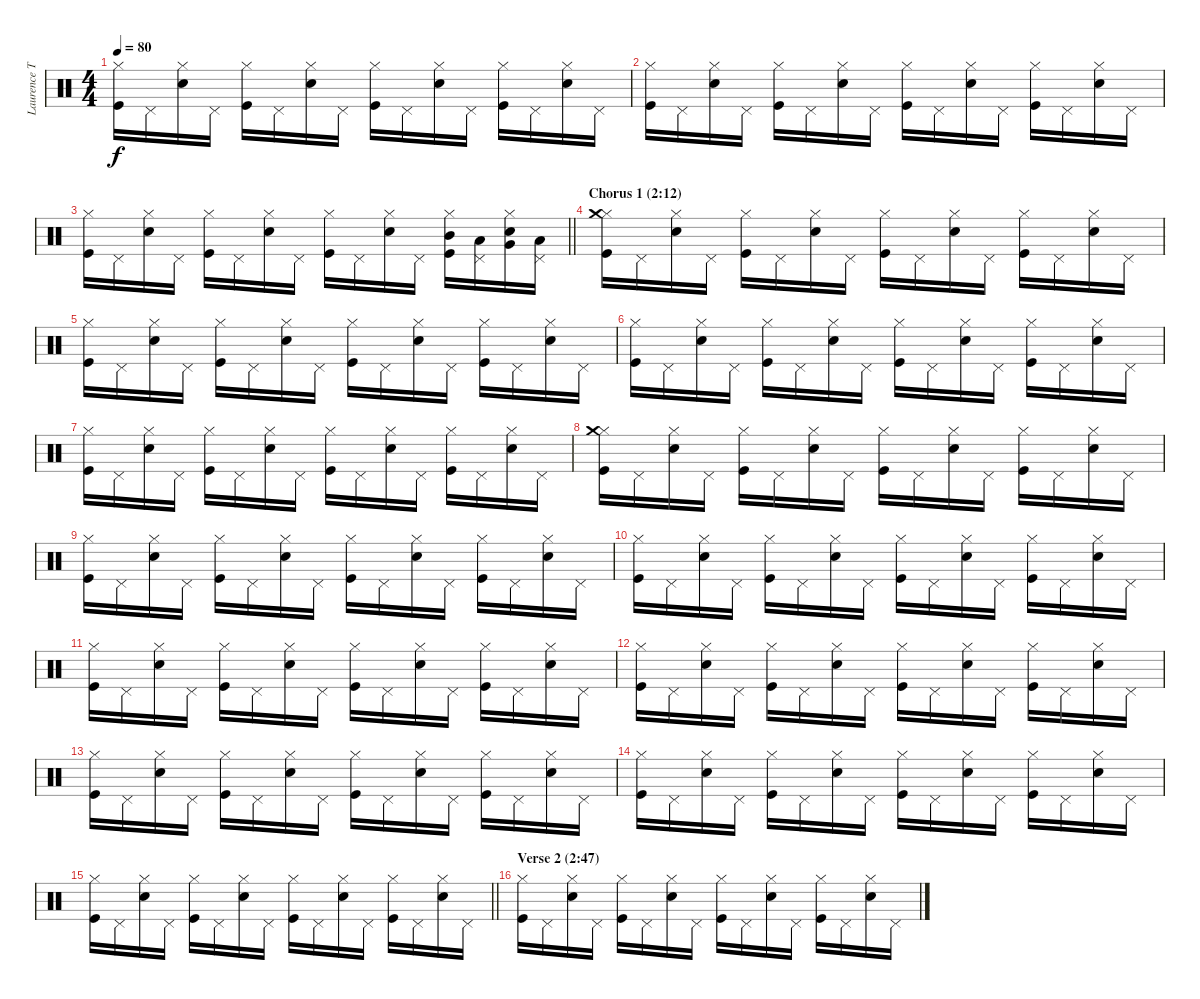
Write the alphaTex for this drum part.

\track ("Laurence Tolhurst (drums)" "Laurence T") {instrument percussion}
\staff {score}
\articulation defaults
\ts (4 4)
\tempo 80
\clef neutral
\ks c
("Kick (hit)" "Hi-Hat (closed)").16{dy f} "Pedal Hi-Hat (hit)".16 ("Snare (hit) 2" "Hi-Hat (closed)").16 "Pedal Hi-Hat (hit)".16 ("Kick (hit)" "Hi-Hat (closed)").16 "Pedal Hi-Hat (hit)".16 ("Snare (hit) 2" "Hi-Hat (closed)").16 "Pedal Hi-Hat (hit)".16 ("Kick (hit)" "Hi-Hat (closed)").16 "Pedal Hi-Hat (hit)".16 ("Snare (hit) 2" "Hi-Hat (closed)").16 "Pedal Hi-Hat (hit)".16 ("Kick (hit)" "Hi-Hat (closed)").16 "Pedal Hi-Hat (hit)".16 ("Snare (hit) 2" "Hi-Hat (closed)").16 "Pedal Hi-Hat (hit)".16 |
("Kick (hit)" "Hi-Hat (closed)").16 "Pedal Hi-Hat (hit)".16 ("Snare (hit) 2" "Hi-Hat (closed)").16 "Pedal Hi-Hat (hit)".16 ("Kick (hit)" "Hi-Hat (closed)").16 "Pedal Hi-Hat (hit)".16 ("Snare (hit) 2" "Hi-Hat (closed)").16 "Pedal Hi-Hat (hit)".16 ("Kick (hit)" "Hi-Hat (closed)").16 "Pedal Hi-Hat (hit)".16 ("Snare (hit) 2" "Hi-Hat (closed)").16 "Pedal Hi-Hat (hit)".16 ("Kick (hit)" "Hi-Hat (closed)").16 "Pedal Hi-Hat (hit)".16 ("Snare (hit) 2" "Hi-Hat (closed)").16 "Pedal Hi-Hat (hit)".16 |
\barLineRight lightlight
("Kick (hit)" "Hi-Hat (closed)").16 "Pedal Hi-Hat (hit)".16 ("Snare (hit) 2" "Hi-Hat (closed)").16 "Pedal Hi-Hat (hit)".16 ("Kick (hit)" "Hi-Hat (closed)").16 "Pedal Hi-Hat (hit)".16 ("Snare (hit) 2" "Hi-Hat (closed)").16 "Pedal Hi-Hat (hit)".16 ("Kick (hit)" "Hi-Hat (closed)").16 "Pedal Hi-Hat (hit)".16 ("Snare (hit) 2" "Hi-Hat (closed)").16 "Pedal Hi-Hat (hit)".16 ("Kick (hit)" "Hi-Hat (closed)" "Mid Tom (hit)").16 ("Pedal Hi-Hat (hit)" "Low Tom (hit)").16 ("Snare (hit) 2" "Hi-Hat (closed)" "Very Low Tom (hit)").16 ("Pedal Hi-Hat (hit)" "Low Floor Tom (hit)").16 |
\section ("" "Chorus 1 (2:12)")
("Kick (hit)" "Hi-Hat (closed)" "Crash medium (hit)").16 "Pedal Hi-Hat (hit)".16 ("Snare (hit) 2" "Hi-Hat (closed)").16 "Pedal Hi-Hat (hit)".16 ("Kick (hit)" "Hi-Hat (closed)").16 "Pedal Hi-Hat (hit)".16 ("Snare (hit) 2" "Hi-Hat (closed)").16 "Pedal Hi-Hat (hit)".16 ("Kick (hit)" "Hi-Hat (closed)").16 "Pedal Hi-Hat (hit)".16 ("Snare (hit) 2" "Hi-Hat (closed)").16 "Pedal Hi-Hat (hit)".16 ("Kick (hit)" "Hi-Hat (closed)").16 "Pedal Hi-Hat (hit)".16 ("Snare (hit) 2" "Hi-Hat (closed)").16 "Pedal Hi-Hat (hit)".16 |
("Kick (hit)" "Hi-Hat (closed)").16 "Pedal Hi-Hat (hit)".16 ("Snare (hit) 2" "Hi-Hat (closed)").16 "Pedal Hi-Hat (hit)".16 ("Kick (hit)" "Hi-Hat (closed)").16 "Pedal Hi-Hat (hit)".16 ("Snare (hit) 2" "Hi-Hat (closed)").16 "Pedal Hi-Hat (hit)".16 ("Kick (hit)" "Hi-Hat (closed)").16 "Pedal Hi-Hat (hit)".16 ("Snare (hit) 2" "Hi-Hat (closed)").16 "Pedal Hi-Hat (hit)".16 ("Kick (hit)" "Hi-Hat (closed)").16 "Pedal Hi-Hat (hit)".16 ("Snare (hit) 2" "Hi-Hat (closed)").16 "Pedal Hi-Hat (hit)".16 |
("Kick (hit)" "Hi-Hat (closed)").16 "Pedal Hi-Hat (hit)".16 ("Snare (hit) 2" "Hi-Hat (closed)").16 "Pedal Hi-Hat (hit)".16 ("Kick (hit)" "Hi-Hat (closed)").16 "Pedal Hi-Hat (hit)".16 ("Snare (hit) 2" "Hi-Hat (closed)").16 "Pedal Hi-Hat (hit)".16 ("Kick (hit)" "Hi-Hat (closed)").16 "Pedal Hi-Hat (hit)".16 ("Snare (hit) 2" "Hi-Hat (closed)").16 "Pedal Hi-Hat (hit)".16 ("Kick (hit)" "Hi-Hat (closed)").16 "Pedal Hi-Hat (hit)".16 ("Snare (hit) 2" "Hi-Hat (closed)").16 "Pedal Hi-Hat (hit)".16 |
("Kick (hit)" "Hi-Hat (closed)").16 "Pedal Hi-Hat (hit)".16 ("Snare (hit) 2" "Hi-Hat (closed)").16 "Pedal Hi-Hat (hit)".16 ("Kick (hit)" "Hi-Hat (closed)").16 "Pedal Hi-Hat (hit)".16 ("Snare (hit) 2" "Hi-Hat (closed)").16 "Pedal Hi-Hat (hit)".16 ("Kick (hit)" "Hi-Hat (closed)").16 "Pedal Hi-Hat (hit)".16 ("Snare (hit) 2" "Hi-Hat (closed)").16 "Pedal Hi-Hat (hit)".16 ("Kick (hit)" "Hi-Hat (closed)").16 "Pedal Hi-Hat (hit)".16 ("Snare (hit) 2" "Hi-Hat (closed)").16 "Pedal Hi-Hat (hit)".16 |
("Kick (hit)" "Hi-Hat (closed)" "Crash medium (hit)").16 "Pedal Hi-Hat (hit)".16 ("Snare (hit) 2" "Hi-Hat (closed)").16 "Pedal Hi-Hat (hit)".16 ("Kick (hit)" "Hi-Hat (closed)").16 "Pedal Hi-Hat (hit)".16 ("Snare (hit) 2" "Hi-Hat (closed)").16 "Pedal Hi-Hat (hit)".16 ("Kick (hit)" "Hi-Hat (closed)").16 "Pedal Hi-Hat (hit)".16 ("Snare (hit) 2" "Hi-Hat (closed)").16 "Pedal Hi-Hat (hit)".16 ("Kick (hit)" "Hi-Hat (closed)").16 "Pedal Hi-Hat (hit)".16 ("Snare (hit) 2" "Hi-Hat (closed)").16 "Pedal Hi-Hat (hit)".16 |
("Kick (hit)" "Hi-Hat (closed)").16 "Pedal Hi-Hat (hit)".16 ("Snare (hit) 2" "Hi-Hat (closed)").16 "Pedal Hi-Hat (hit)".16 ("Kick (hit)" "Hi-Hat (closed)").16 "Pedal Hi-Hat (hit)".16 ("Snare (hit) 2" "Hi-Hat (closed)").16 "Pedal Hi-Hat (hit)".16 ("Kick (hit)" "Hi-Hat (closed)").16 "Pedal Hi-Hat (hit)".16 ("Snare (hit) 2" "Hi-Hat (closed)").16 "Pedal Hi-Hat (hit)".16 ("Kick (hit)" "Hi-Hat (closed)").16 "Pedal Hi-Hat (hit)".16 ("Snare (hit) 2" "Hi-Hat (closed)").16 "Pedal Hi-Hat (hit)".16 |
("Kick (hit)" "Hi-Hat (closed)").16 "Pedal Hi-Hat (hit)".16 ("Snare (hit) 2" "Hi-Hat (closed)").16 "Pedal Hi-Hat (hit)".16 ("Kick (hit)" "Hi-Hat (closed)").16 "Pedal Hi-Hat (hit)".16 ("Snare (hit) 2" "Hi-Hat (closed)").16 "Pedal Hi-Hat (hit)".16 ("Kick (hit)" "Hi-Hat (closed)").16 "Pedal Hi-Hat (hit)".16 ("Snare (hit) 2" "Hi-Hat (closed)").16 "Pedal Hi-Hat (hit)".16 ("Kick (hit)" "Hi-Hat (closed)").16 "Pedal Hi-Hat (hit)".16 ("Snare (hit) 2" "Hi-Hat (closed)").16 "Pedal Hi-Hat (hit)".16 |
("Kick (hit)" "Hi-Hat (closed)").16 "Pedal Hi-Hat (hit)".16 ("Snare (hit) 2" "Hi-Hat (closed)").16 "Pedal Hi-Hat (hit)".16 ("Kick (hit)" "Hi-Hat (closed)").16 "Pedal Hi-Hat (hit)".16 ("Snare (hit) 2" "Hi-Hat (closed)").16 "Pedal Hi-Hat (hit)".16 ("Kick (hit)" "Hi-Hat (closed)").16 "Pedal Hi-Hat (hit)".16 ("Snare (hit) 2" "Hi-Hat (closed)").16 "Pedal Hi-Hat (hit)".16 ("Kick (hit)" "Hi-Hat (closed)").16 "Pedal Hi-Hat (hit)".16 ("Snare (hit) 2" "Hi-Hat (closed)").16 "Pedal Hi-Hat (hit)".16 |
("Kick (hit)" "Hi-Hat (closed)").16 "Pedal Hi-Hat (hit)".16 ("Snare (hit) 2" "Hi-Hat (closed)").16 "Pedal Hi-Hat (hit)".16 ("Kick (hit)" "Hi-Hat (closed)").16 "Pedal Hi-Hat (hit)".16 ("Snare (hit) 2" "Hi-Hat (closed)").16 "Pedal Hi-Hat (hit)".16 ("Kick (hit)" "Hi-Hat (closed)").16 "Pedal Hi-Hat (hit)".16 ("Snare (hit) 2" "Hi-Hat (closed)").16 "Pedal Hi-Hat (hit)".16 ("Kick (hit)" "Hi-Hat (closed)").16 "Pedal Hi-Hat (hit)".16 ("Snare (hit) 2" "Hi-Hat (closed)").16 "Pedal Hi-Hat (hit)".16 |
("Kick (hit)" "Hi-Hat (closed)").16 "Pedal Hi-Hat (hit)".16 ("Snare (hit) 2" "Hi-Hat (closed)").16 "Pedal Hi-Hat (hit)".16 ("Kick (hit)" "Hi-Hat (closed)").16 "Pedal Hi-Hat (hit)".16 ("Snare (hit) 2" "Hi-Hat (closed)").16 "Pedal Hi-Hat (hit)".16 ("Kick (hit)" "Hi-Hat (closed)").16 "Pedal Hi-Hat (hit)".16 ("Snare (hit) 2" "Hi-Hat (closed)").16 "Pedal Hi-Hat (hit)".16 ("Kick (hit)" "Hi-Hat (closed)").16 "Pedal Hi-Hat (hit)".16 ("Snare (hit) 2" "Hi-Hat (closed)").16 "Pedal Hi-Hat (hit)".16 |
("Kick (hit)" "Hi-Hat (closed)").16 "Pedal Hi-Hat (hit)".16 ("Snare (hit) 2" "Hi-Hat (closed)").16 "Pedal Hi-Hat (hit)".16 ("Kick (hit)" "Hi-Hat (closed)").16 "Pedal Hi-Hat (hit)".16 ("Snare (hit) 2" "Hi-Hat (closed)").16 "Pedal Hi-Hat (hit)".16 ("Kick (hit)" "Hi-Hat (closed)").16 "Pedal Hi-Hat (hit)".16 ("Snare (hit) 2" "Hi-Hat (closed)").16 "Pedal Hi-Hat (hit)".16 ("Kick (hit)" "Hi-Hat (closed)").16 "Pedal Hi-Hat (hit)".16 ("Snare (hit) 2" "Hi-Hat (closed)").16 "Pedal Hi-Hat (hit)".16 |
\barLineRight lightlight
("Kick (hit)" "Hi-Hat (closed)").16 "Pedal Hi-Hat (hit)".16 ("Snare (hit) 2" "Hi-Hat (closed)").16 "Pedal Hi-Hat (hit)".16 ("Kick (hit)" "Hi-Hat (closed)").16 "Pedal Hi-Hat (hit)".16 ("Snare (hit) 2" "Hi-Hat (closed)").16 "Pedal Hi-Hat (hit)".16 ("Kick (hit)" "Hi-Hat (closed)").16 "Pedal Hi-Hat (hit)".16 ("Snare (hit) 2" "Hi-Hat (closed)").16 "Pedal Hi-Hat (hit)".16 ("Kick (hit)" "Hi-Hat (closed)").16 "Pedal Hi-Hat (hit)".16 ("Snare (hit) 2" "Hi-Hat (closed)").16 "Pedal Hi-Hat (hit)".16 |
\section ("" "Verse 2 (2:47)")
("Kick (hit)" "Hi-Hat (closed)").16 "Pedal Hi-Hat (hit)".16 ("Snare (hit) 2" "Hi-Hat (closed)").16 "Pedal Hi-Hat (hit)".16 ("Kick (hit)" "Hi-Hat (closed)").16 "Pedal Hi-Hat (hit)".16 ("Snare (hit) 2" "Hi-Hat (closed)").16 "Pedal Hi-Hat (hit)".16 ("Kick (hit)" "Hi-Hat (closed)").16 "Pedal Hi-Hat (hit)".16 ("Snare (hit) 2" "Hi-Hat (closed)").16 "Pedal Hi-Hat (hit)".16 ("Kick (hit)" "Hi-Hat (closed)").16 "Pedal Hi-Hat (hit)".16 ("Snare (hit) 2" "Hi-Hat (closed)").16 "Pedal Hi-Hat (hit)".16
